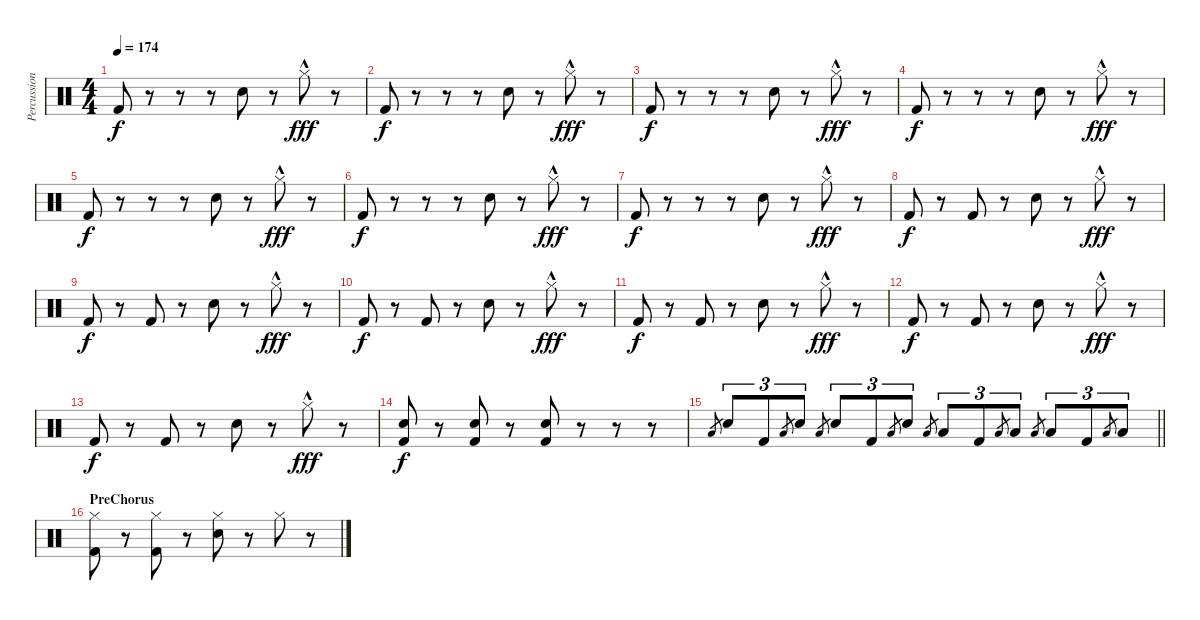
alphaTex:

\track ("Percussion" "Percussion") {instrument percussion}
\staff {score}
\articulation defaults
\ts (4 4)
\tempo 174
\clef neutral
\ks c "Kick (hit) 2".8{dy f}
r.8 r.8 r.8 "Snare (hit) 2".8 r.8 "Hi-Hat (closed)"{hac}.8{dy fff} r.8 |
"Kick (hit) 2".8{dy f} r.8 r.8 r.8 "Snare (hit) 2".8 r.8 "Hi-Hat (closed)"{hac}.8{dy fff} r.8 |
"Kick (hit) 2".8{dy f} r.8 r.8 r.8 "Snare (hit) 2".8 r.8 "Hi-Hat (closed)"{hac}.8{dy fff} r.8 |
"Kick (hit) 2".8{dy f} r.8 r.8 r.8 "Snare (hit) 2".8 r.8 "Hi-Hat (closed)"{hac}.8{dy fff} r.8 |
"Kick (hit) 2".8{dy f} r.8 r.8 r.8 "Snare (hit) 2".8 r.8 "Hi-Hat (closed)"{hac}.8{dy fff} r.8 |
"Kick (hit) 2".8{dy f} r.8 r.8 r.8 "Snare (hit) 2".8 r.8 "Hi-Hat (closed)"{hac}.8{dy fff} r.8 |
"Kick (hit) 2".8{dy f} r.8 r.8 r.8 "Snare (hit) 2".8 r.8 "Hi-Hat (closed)"{hac}.8{dy fff} r.8 |
"Kick (hit) 2".8{dy f} r.8 "Kick (hit) 2".8 r.8 "Snare (hit) 2".8 r.8 "Hi-Hat (closed)"{hac}.8{dy fff} r.8 |
"Kick (hit) 2".8{dy f} r.8 "Kick (hit) 2".8 r.8 "Snare (hit) 2".8 r.8 "Hi-Hat (closed)"{hac}.8{dy fff} r.8 |
"Kick (hit) 2".8{dy f} r.8 "Kick (hit) 2".8 r.8 "Snare (hit) 2".8 r.8 "Hi-Hat (closed)"{hac}.8{dy fff} r.8 |
"Kick (hit) 2".8{dy f} r.8 "Kick (hit) 2".8 r.8 "Snare (hit) 2".8 r.8 "Hi-Hat (closed)"{hac}.8{dy fff} r.8 |
"Kick (hit) 2".8{dy f} r.8 "Kick (hit) 2".8 r.8 "Snare (hit) 2".8 r.8 "Hi-Hat (closed)"{hac}.8{dy fff} r.8 |
"Kick (hit) 2".8{dy f} r.8 "Kick (hit) 2".8 r.8 "Snare (hit) 2".8 r.8 "Hi-Hat (closed)"{hac}.8{dy fff} r.8 |
("Snare (hit) 2" "Kick (hit) 2").8{dy f} r.8 ("Snare (hit) 2" "Kick (hit) 2").8 r.8 ("Snare (hit) 2" "Kick (hit) 2").8 r.8 r.8 r.8 |
\barLineRight lightlight "Low Tom (hit)".8{gr} "Snare (hit) 2".8{tu (3 2)} "Kick (hit) 2".8{tu (3 2)} "Low Tom (hit)".8{gr} "Snare (hit) 2".8{tu (3 2)} "Low Tom (hit)".8{gr} "Snare (hit) 2".8{tu (3 2)} "Kick (hit) 2".8{tu (3 2)} "Low Tom (hit)".8{gr} "Snare (hit) 2".8{tu (3 2)} "Low Tom (hit)".8{gr} "Low Tom (hit)".8{tu (3 2)} "Kick (hit) 2".8{tu (3 2)} "Low Tom (hit)".8{gr} "Low Tom (hit)".8{tu (3 2)} "Low Tom (hit)".8{gr} "Low Tom (hit)".8{tu (3 2)} "Kick (hit) 2".8{tu (3 2)} "Low Tom (hit)".8{gr} "Low Tom (hit)".8{tu (3 2)}
|
\section ("" "PreChorus")
("Hi-Hat (closed)" "Kick (hit) 2").8 r.8 ("Hi-Hat (closed)" "Kick (hit) 2").8 r.8 ("Hi-Hat (closed)" "Snare (hit) 2").8 r.8 "Hi-Hat (closed)".8 r.8
